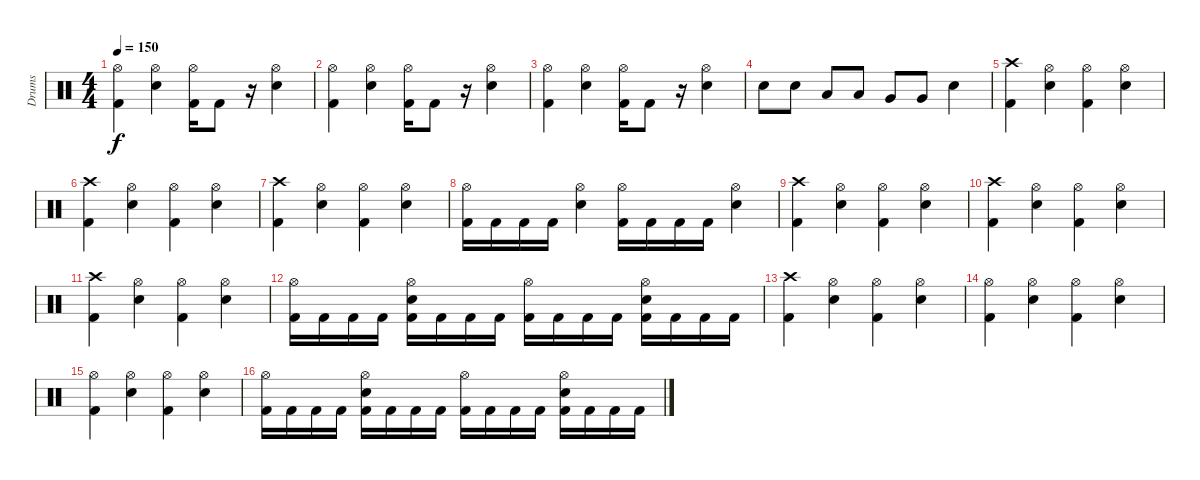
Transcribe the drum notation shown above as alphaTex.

\track ("Drums" "Drums") {instrument percussion}
\staff {score}
\articulation defaults
\ts (4 4)
\tempo 150
\clef neutral
\ks c
("Hi-Hat (open)" "Kick (hit) 2").4{dy f} ("Hi-Hat (open)" "Snare (hit) 2").4 ("Hi-Hat (open)" "Kick (hit) 2").16 "Kick (hit) 2".8 r.16 ("Hi-Hat (open)" "Snare (hit) 2").4 |
("Hi-Hat (open)" "Kick (hit) 2").4 ("Hi-Hat (open)" "Snare (hit) 2").4 ("Hi-Hat (open)" "Kick (hit) 2").16 "Kick (hit) 2".8 r.16 ("Hi-Hat (open)" "Snare (hit) 2").4 |
("Hi-Hat (open)" "Kick (hit) 2").4 ("Hi-Hat (open)" "Snare (hit) 2").4 ("Hi-Hat (open)" "Kick (hit) 2").16 "Kick (hit) 2".8 r.16 ("Hi-Hat (open)" "Snare (hit) 2").4 |
"Snare (hit) 2".8 "Snare (hit) 2".8 "Low Tom (hit)".8 "Low Tom (hit)".8 "Very Low Tom (hit)".8 "Very Low Tom (hit)".8 "Snare (hit) 2".4 |
("Crash high (hit)" "Kick (hit) 2").4 ("Hi-Hat (open)" "Snare (hit) 2").4 ("Hi-Hat (open)" "Kick (hit) 2").4 ("Hi-Hat (open)" "Snare (hit) 2").4 |
("Crash high (hit)" "Kick (hit) 2").4 ("Hi-Hat (open)" "Snare (hit) 2").4 ("Hi-Hat (open)" "Kick (hit) 2").4 ("Hi-Hat (open)" "Snare (hit) 2").4 |
("Crash high (hit)" "Kick (hit) 2").4 ("Hi-Hat (open)" "Snare (hit) 2").4 ("Hi-Hat (open)" "Kick (hit) 2").4 ("Hi-Hat (open)" "Snare (hit) 2").4 |
("Hi-Hat (open)" "Kick (hit) 2").16 "Kick (hit) 2".16 "Kick (hit) 2".16 "Kick (hit) 2".16 ("Hi-Hat (open)" "Snare (hit) 2").4 ("Hi-Hat (open)" "Kick (hit) 2").16 "Kick (hit) 2".16 "Kick (hit) 2".16 "Kick (hit) 2".16 ("Hi-Hat (open)" "Snare (hit) 2").4 |
("Crash high (hit)" "Kick (hit) 2").4 ("Hi-Hat (open)" "Snare (hit) 2").4 ("Hi-Hat (open)" "Kick (hit) 2").4 ("Hi-Hat (open)" "Snare (hit) 2").4 |
("Crash high (hit)" "Kick (hit) 2").4 ("Hi-Hat (open)" "Snare (hit) 2").4 ("Hi-Hat (open)" "Kick (hit) 2").4 ("Hi-Hat (open)" "Snare (hit) 2").4 |
("Crash high (hit)" "Kick (hit) 2").4 ("Hi-Hat (open)" "Snare (hit) 2").4 ("Hi-Hat (open)" "Kick (hit) 2").4 ("Hi-Hat (open)" "Snare (hit) 2").4 |
("Hi-Hat (open)" "Kick (hit) 2").16 "Kick (hit) 2".16 "Kick (hit) 2".16 "Kick (hit) 2".16 ("Hi-Hat (open)" "Snare (hit) 2" "Kick (hit) 2").16 "Kick (hit) 2".16 "Kick (hit) 2".16 "Kick (hit) 2".16 ("Hi-Hat (open)" "Kick (hit) 2").16 "Kick (hit) 2".16 "Kick (hit) 2".16 "Kick (hit) 2".16 ("Hi-Hat (open)" "Snare (hit) 2" "Kick (hit) 2").16 "Kick (hit) 2".16 "Kick (hit) 2".16 "Kick (hit) 2".16 |
("Crash high (hit)" "Kick (hit) 2").4 ("Hi-Hat (open)" "Snare (hit) 2").4 ("Hi-Hat (open)" "Kick (hit) 2").4 ("Hi-Hat (open)" "Snare (hit) 2").4 |
("Hi-Hat (open)" "Kick (hit) 2").4 ("Hi-Hat (open)" "Snare (hit) 2").4 ("Hi-Hat (open)" "Kick (hit) 2").4 ("Hi-Hat (open)" "Snare (hit) 2").4 |
("Hi-Hat (open)" "Kick (hit) 2").4 ("Hi-Hat (open)" "Snare (hit) 2").4 ("Hi-Hat (open)" "Kick (hit) 2").4 ("Hi-Hat (open)" "Snare (hit) 2").4 |
("Hi-Hat (open)" "Kick (hit) 2").16 "Kick (hit) 2".16 "Kick (hit) 2".16 "Kick (hit) 2".16 ("Hi-Hat (open)" "Snare (hit) 2" "Kick (hit) 2").16 "Kick (hit) 2".16 "Kick (hit) 2".16 "Kick (hit) 2".16 ("Hi-Hat (open)" "Kick (hit) 2").16 "Kick (hit) 2".16 "Kick (hit) 2".16 "Kick (hit) 2".16 ("Hi-Hat (open)" "Snare (hit) 2" "Kick (hit) 2").16 "Kick (hit) 2".16 "Kick (hit) 2".16 "Kick (hit) 2".16
